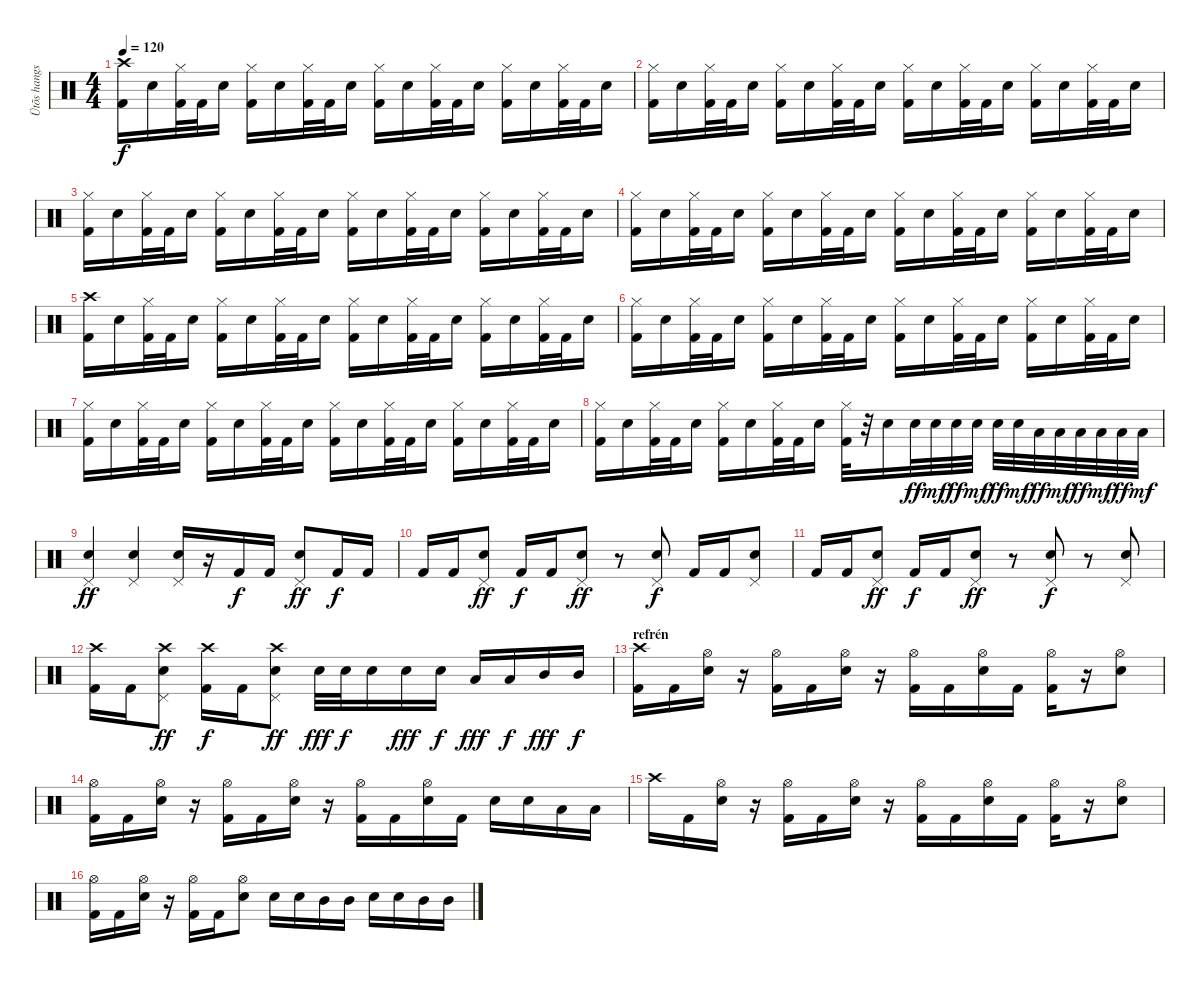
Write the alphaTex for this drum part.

\track ("Ütõs hangszer" "Ütõs hangs") {instrument percussion}
\staff {score}
\articulation defaults
\ts (4 4)
\tempo 120
\clef neutral
\ks c
("Crash high (hit)" "Kick (hit) 2").16{dy f} "Snare (hit) 2".16 ("Hi-Hat (closed)" "Kick (hit) 2").32 "Kick (hit) 2".32 "Snare (hit) 2".16 ("Hi-Hat (closed)" "Kick (hit) 2").16 "Snare (hit) 2".16 ("Hi-Hat (closed)" "Kick (hit) 2").32 "Kick (hit) 2".32 "Snare (hit) 2".16 ("Hi-Hat (closed)" "Kick (hit) 2").16 "Snare (hit) 2".16 ("Hi-Hat (closed)" "Kick (hit) 2").32 "Kick (hit) 2".32 "Snare (hit) 2".16 ("Hi-Hat (closed)" "Kick (hit) 2").16 "Snare (hit) 2".16 ("Hi-Hat (closed)" "Kick (hit) 2").32 "Kick (hit) 2".32 "Snare (hit) 2".16 |
("Hi-Hat (closed)" "Kick (hit) 2").16 "Snare (hit) 2".16 ("Hi-Hat (closed)" "Kick (hit) 2").32 "Kick (hit) 2".32 "Snare (hit) 2".16 ("Hi-Hat (closed)" "Kick (hit) 2").16 "Snare (hit) 2".16 ("Hi-Hat (closed)" "Kick (hit) 2").32 "Kick (hit) 2".32 "Snare (hit) 2".16 ("Hi-Hat (closed)" "Kick (hit) 2").16 "Snare (hit) 2".16 ("Hi-Hat (closed)" "Kick (hit) 2").32 "Kick (hit) 2".32 "Snare (hit) 2".16 ("Hi-Hat (closed)" "Kick (hit) 2").16 "Snare (hit) 2".16 ("Hi-Hat (closed)" "Kick (hit) 2").32 "Kick (hit) 2".32 "Snare (hit) 2".16 |
("Hi-Hat (closed)" "Kick (hit) 2").16 "Snare (hit) 2".16 ("Hi-Hat (closed)" "Kick (hit) 2").32 "Kick (hit) 2".32 "Snare (hit) 2".16 ("Hi-Hat (closed)" "Kick (hit) 2").16 "Snare (hit) 2".16 ("Hi-Hat (closed)" "Kick (hit) 2").32 "Kick (hit) 2".32 "Snare (hit) 2".16 ("Hi-Hat (closed)" "Kick (hit) 2").16 "Snare (hit) 2".16 ("Hi-Hat (closed)" "Kick (hit) 2").32 "Kick (hit) 2".32 "Snare (hit) 2".16 ("Hi-Hat (closed)" "Kick (hit) 2").16 "Snare (hit) 2".16 ("Hi-Hat (closed)" "Kick (hit) 2").32 "Kick (hit) 2".32 "Snare (hit) 2".16 |
("Hi-Hat (closed)" "Kick (hit) 2").16 "Snare (hit) 2".16 ("Hi-Hat (closed)" "Kick (hit) 2").32 "Kick (hit) 2".32 "Snare (hit) 2".16 ("Hi-Hat (closed)" "Kick (hit) 2").16 "Snare (hit) 2".16 ("Hi-Hat (closed)" "Kick (hit) 2").32 "Kick (hit) 2".32 "Snare (hit) 2".16 ("Hi-Hat (closed)" "Kick (hit) 2").16 "Snare (hit) 2".16 ("Hi-Hat (closed)" "Kick (hit) 2").32 "Kick (hit) 2".32 "Snare (hit) 2".16 ("Hi-Hat (closed)" "Kick (hit) 2").16 "Snare (hit) 2".16 ("Hi-Hat (closed)" "Kick (hit) 2").32 "Kick (hit) 2".32 "Snare (hit) 2".16 |
("Crash high (hit)" "Kick (hit) 2").16 "Snare (hit) 2".16 ("Hi-Hat (closed)" "Kick (hit) 2").32 "Kick (hit) 2".32 "Snare (hit) 2".16 ("Hi-Hat (closed)" "Kick (hit) 2").16 "Snare (hit) 2".16 ("Hi-Hat (closed)" "Kick (hit) 2").32 "Kick (hit) 2".32 "Snare (hit) 2".16 ("Hi-Hat (closed)" "Kick (hit) 2").16 "Snare (hit) 2".16 ("Hi-Hat (closed)" "Kick (hit) 2").32 "Kick (hit) 2".32 "Snare (hit) 2".16 ("Hi-Hat (closed)" "Kick (hit) 2").16 "Snare (hit) 2".16 ("Hi-Hat (closed)" "Kick (hit) 2").32 "Kick (hit) 2".32 "Snare (hit) 2".16 |
("Hi-Hat (closed)" "Kick (hit) 2").16 "Snare (hit) 2".16 ("Hi-Hat (closed)" "Kick (hit) 2").32 "Kick (hit) 2".32 "Snare (hit) 2".16 ("Hi-Hat (closed)" "Kick (hit) 2").16 "Snare (hit) 2".16 ("Hi-Hat (closed)" "Kick (hit) 2").32 "Kick (hit) 2".32 "Snare (hit) 2".16 ("Hi-Hat (closed)" "Kick (hit) 2").16 "Snare (hit) 2".16 ("Hi-Hat (closed)" "Kick (hit) 2").32 "Kick (hit) 2".32 "Snare (hit) 2".16 ("Hi-Hat (closed)" "Kick (hit) 2").16 "Snare (hit) 2".16 ("Hi-Hat (closed)" "Kick (hit) 2").32 "Kick (hit) 2".32 "Snare (hit) 2".16 |
("Hi-Hat (closed)" "Kick (hit) 2").16 "Snare (hit) 2".16 ("Hi-Hat (closed)" "Kick (hit) 2").32 "Kick (hit) 2".32 "Snare (hit) 2".16 ("Hi-Hat (closed)" "Kick (hit) 2").16 "Snare (hit) 2".16 ("Hi-Hat (closed)" "Kick (hit) 2").32 "Kick (hit) 2".32 "Snare (hit) 2".16 ("Hi-Hat (closed)" "Kick (hit) 2").16 "Snare (hit) 2".16 ("Hi-Hat (closed)" "Kick (hit) 2").32 "Kick (hit) 2".32 "Snare (hit) 2".16 ("Hi-Hat (closed)" "Kick (hit) 2").16 "Snare (hit) 2".16 ("Hi-Hat (closed)" "Kick (hit) 2").32 "Kick (hit) 2".32 "Snare (hit) 2".16 |
("Hi-Hat (closed)" "Kick (hit) 2").16 "Snare (hit) 2".16 ("Hi-Hat (closed)" "Kick (hit) 2").32 "Kick (hit) 2".32 "Snare (hit) 2".16 ("Hi-Hat (closed)" "Kick (hit) 2").16 "Snare (hit) 2".16 ("Hi-Hat (closed)" "Kick (hit) 2").32 "Kick (hit) 2".32 "Snare (hit) 2".16 ("Hi-Hat (closed)" "Kick (hit) 2").32 r.32 "Snare (hit) 2".16 "Snare (hit) 2".32{dy ff} "Snare (hit) 2".32{dy mf} "Snare (hit) 2".32{dy ff} "Snare (hit) 2".32{dy mf} "Snare (hit) 2".32{dy ff} "Snare (hit) 2".32{dy mf} "Low Tom (hit)".32{dy ff} "Low Tom (hit)".32{dy mf} "Low Tom (hit)".32{dy ff} "Low Tom (hit)".32{dy mf} "Low Tom (hit)".32{dy ff} "Low Tom (hit)".32{dy mf} |
("Pedal Hi-Hat (hit)" "Snare (hit) 2").4{dy ff} ("Pedal Hi-Hat (hit)" "Snare (hit) 2").4 ("Pedal Hi-Hat (hit)" "Snare (hit) 2").16 r.16 "Kick (hit) 2".16{dy f} "Kick (hit) 2".16 ("Pedal Hi-Hat (hit)" "Snare (hit) 2").8{dy ff} "Kick (hit) 2".16{dy f} "Kick (hit) 2".16 |
"Kick (hit) 2".16 "Kick (hit) 2".16 ("Pedal Hi-Hat (hit)" "Snare (hit) 2").8{dy ff} "Kick (hit) 2".16{dy f} "Kick (hit) 2".16 ("Pedal Hi-Hat (hit)" "Snare (hit) 2").8{dy ff} r.8 ("Snare (hit) 2" "Pedal Hi-Hat (hit)").8{dy f} "Kick (hit) 2".16 "Kick (hit) 2".16 ("Snare (hit) 2" "Pedal Hi-Hat (hit)").8 |
"Kick (hit) 2".16 "Kick (hit) 2".16 ("Pedal Hi-Hat (hit)" "Snare (hit) 2").8{dy ff} "Kick (hit) 2".16{dy f} "Kick (hit) 2".16 ("Pedal Hi-Hat (hit)" "Snare (hit) 2").8{dy ff} r.8 ("Pedal Hi-Hat (hit)" "Snare (hit) 2").8{dy f} r.8 ("Pedal Hi-Hat (hit)" "Snare (hit) 2").8 |
("Crash high (hit)" "Kick (hit) 2").16 "Kick (hit) 2".16 ("Crash high (hit)" "Pedal Hi-Hat (hit)" "Snare (hit) 2").8{dy ff} ("Crash high (hit)" "Kick (hit) 2").16{dy f} "Kick (hit) 2".16 ("Crash high (hit)" "Pedal Hi-Hat (hit)" "Snare (hit) 2").8{dy ff} "Snare (hit) 2".32{dy fff} "Snare (hit) 2".32{dy f} "Snare (hit) 2".16 "Snare (hit) 2".16{dy fff} "Snare (hit) 2".16{dy f} "Low Tom (hit)".16{dy fff} "Low Tom (hit)".16{dy f} "Mid Tom (hit)".16{dy fff} "Mid Tom (hit)".16{dy f} |
\section ("" "refrén")
("Crash high (hit)" "Kick (hit) 2").16 "Kick (hit) 2".16 ("Hi-Hat (open)" "Snare (hit) 2").16 r.16 ("Hi-Hat (open)" "Kick (hit) 2").16 "Kick (hit) 2".16 ("Hi-Hat (open)" "Snare (hit) 2").16 r.16 ("Hi-Hat (open)" "Kick (hit) 2").16 "Kick (hit) 2".16 ("Hi-Hat (open)" "Snare (hit) 2").16 "Kick (hit) 2".16 ("Hi-Hat (open)" "Kick (hit) 2").16 r.16 ("Hi-Hat (open)" "Snare (hit) 2").8 |
("Hi-Hat (open)" "Kick (hit) 2").16 "Kick (hit) 2".16 ("Hi-Hat (open)" "Snare (hit) 2").16 r.16 ("Hi-Hat (open)" "Kick (hit) 2").16 "Kick (hit) 2".16 ("Hi-Hat (open)" "Snare (hit) 2").16 r.16 ("Hi-Hat (open)" "Kick (hit) 2").16 "Kick (hit) 2".16 ("Hi-Hat (open)" "Snare (hit) 2").16 "Kick (hit) 2".16 "Snare (hit) 2".16 "Snare (hit) 2".16 "Low Tom (hit)".16 "Low Tom (hit)".16 |
"Crash high (hit)".16 "Kick (hit) 2".16 ("Hi-Hat (open)" "Snare (hit) 2").16 r.16 ("Hi-Hat (open)" "Kick (hit) 2").16 "Kick (hit) 2".16 ("Hi-Hat (open)" "Snare (hit) 2").16 r.16 ("Hi-Hat (open)" "Kick (hit) 2").16 "Kick (hit) 2".16 ("Hi-Hat (open)" "Snare (hit) 2").16 "Kick (hit) 2".16 ("Hi-Hat (open)" "Kick (hit) 2").16 r.16 ("Hi-Hat (open)" "Snare (hit) 2").8 |
("Hi-Hat (open)" "Kick (hit) 2").16 "Kick (hit) 2".16 ("Hi-Hat (open)" "Snare (hit) 2").16 r.16 ("Hi-Hat (open)" "Kick (hit) 2").16 "Kick (hit) 2".16 ("Hi-Hat (open)" "Snare (hit) 2").8 "Snare (hit) 2".16 "Snare (hit) 2".16 "Mid Tom (hit)".16 "Mid Tom (hit)".16 "Snare (hit) 2".16 "Snare (hit) 2".16 "Mid Tom (hit)".16 "Mid Tom (hit)".16
